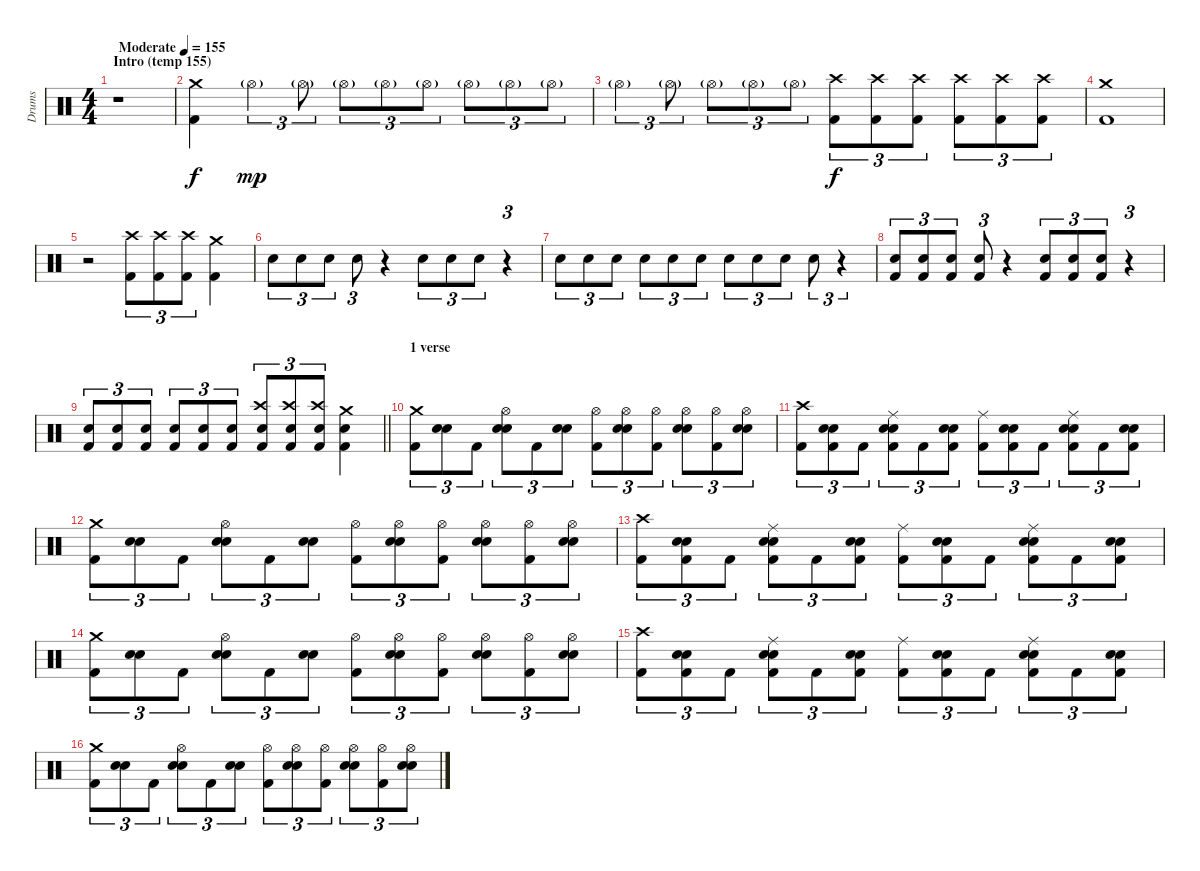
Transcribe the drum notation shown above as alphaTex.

\track ("Drums" "Drums") {instrument percussion}
\staff {score}
\articulation defaults
\ts (4 4)
\section ("" "Intro (temp 155)")
\tempo (155 "Moderate")
\clef neutral
\ks c
r.1{dy f} |
("Crash medium (hit)" "Kick (hit) 2").4 "Hi-Hat (open)"{g}.4{tu (3 2) dy mp} "Hi-Hat (open)"{g}.8{tu (3 2)} "Hi-Hat (open)"{g}.8{tu (3 2)} "Hi-Hat (open)"{g}.8{tu (3 2)} "Hi-Hat (open)"{g}.8{tu (3 2)} "Hi-Hat (open)"{g}.8{tu (3 2)} "Hi-Hat (open)"{g}.8{tu (3 2)} "Hi-Hat (open)"{g}.8{tu (3 2)} |
"Hi-Hat (open)"{g}.4{tu (3 2)} "Hi-Hat (open)"{g}.8{tu (3 2)} "Hi-Hat (open)"{g}.8{tu (3 2)} "Hi-Hat (open)"{g}.8{tu (3 2)} "Hi-Hat (open)"{g}.8{tu (3 2)} ("Crash high (hit)" "Kick (hit) 2").8{tu (3 2) dy f} ("Crash high (hit)" "Kick (hit) 2").8{tu (3 2)} ("Crash high (hit)" "Kick (hit) 2").8{tu (3 2)} ("Crash high (hit)" "Kick (hit) 2").8{tu (3 2)} ("Crash high (hit)" "Kick (hit) 2").8{tu (3 2)} ("Crash high (hit)" "Kick (hit) 2").8{tu (3 2)} |
("Crash medium (hit)" "Kick (hit) 2").1 |
r.2 ("Crash high (hit)" "Kick (hit) 2").8{tu (3 2)} ("Crash high (hit)" "Kick (hit) 2").8{tu (3 2)} ("Crash high (hit)" "Kick (hit) 2").8{tu (3 2)} ("Crash medium (hit)" "Kick (hit) 2").4 |
"Electric Snare (hit)".8{tu (3 2)} "Electric Snare (hit)".8{tu (3 2)} "Electric Snare (hit)".8{tu (3 2)} "Electric Snare (hit)".8{tu (3 2)} r.4 "Electric Snare (hit)".8{tu (3 2)} "Electric Snare (hit)".8{tu (3 2)} "Electric Snare (hit)".8{tu (3 2)} r.4{tu (3 2)} |
"Electric Snare (hit)".8{tu (3 2)} "Electric Snare (hit)".8{tu (3 2)} "Electric Snare (hit)".8{tu (3 2)} "Electric Snare (hit)".8{tu (3 2)} "Electric Snare (hit)".8{tu (3 2)} "Electric Snare (hit)".8{tu (3 2)} "Electric Snare (hit)".8{tu (3 2)} "Electric Snare (hit)".8{tu (3 2)} "Electric Snare (hit)".8{tu (3 2)} "Electric Snare (hit)".8{tu (3 2)} r.4{tu (3 2)} |
("Electric Snare (hit)" "Kick (hit) 2").8{tu (3 2)} ("Electric Snare (hit)" "Kick (hit) 2").8{tu (3 2)} ("Electric Snare (hit)" "Kick (hit) 2").8{tu (3 2)} ("Electric Snare (hit)" "Kick (hit) 2").8{tu (3 2)} r.4 ("Electric Snare (hit)" "Kick (hit) 2").8{tu (3 2)} ("Electric Snare (hit)" "Kick (hit) 2").8{tu (3 2)} ("Electric Snare (hit)" "Kick (hit) 2").8{tu (3 2)} r.4{tu (3 2)} |
\barLineRight lightlight
("Electric Snare (hit)" "Kick (hit) 2").8{tu (3 2)} ("Electric Snare (hit)" "Kick (hit) 2").8{tu (3 2)} ("Electric Snare (hit)" "Kick (hit) 2").8{tu (3 2)} ("Electric Snare (hit)" "Kick (hit) 2").8{tu (3 2)} ("Electric Snare (hit)" "Kick (hit) 2").8{tu (3 2)} ("Electric Snare (hit)" "Kick (hit) 2").8{tu (3 2)} ("Crash high (hit)" "Electric Snare (hit)" "Kick (hit) 2").8{tu (3 2)} ("Crash high (hit)" "Electric Snare (hit)" "Kick (hit) 2").8{tu (3 2)} ("Crash high (hit)" "Electric Snare (hit)" "Kick (hit) 2").8{tu (3 2)} ("Crash medium (hit)" "Electric Snare (hit)" "Kick (hit) 2").4 |
\section ("" "1 verse")
("Crash medium (hit)" "Kick (hit) 2").8{tu (3 2)} ("Electric Snare (hit)" "Electric Snare (hit)").8{tu (3 2)} "Kick (hit) 2".8{tu (3 2)} ("Hi-Hat (open)" "Electric Snare (hit)" "Electric Snare (hit)").8{tu (3 2)} "Kick (hit) 2".8{tu (3 2)} ("Electric Snare (hit)" "Electric Snare (hit)").8{tu (3 2)} ("Hi-Hat (open)" "Kick (hit) 2").8{tu (3 2)} ("Hi-Hat (open)" "Electric Snare (hit)" "Electric Snare (hit)").8{tu (3 2)} ("Hi-Hat (open)" "Kick (hit) 2").8{tu (3 2)} ("Hi-Hat (open)" "Electric Snare (hit)" "Electric Snare (hit)").8{tu (3 2)} ("Hi-Hat (open)" "Kick (hit) 2").8{tu (3 2)} ("Hi-Hat (open)" "Electric Snare (hit)" "Electric Snare (hit)").8{tu (3 2)} |
("Crash high (hit)" "Kick (hit) 2").8{tu (3 2)} ("Electric Snare (hit)" "Electric Snare (hit)" "Kick (hit) 2").8{tu (3 2)} "Kick (hit) 2".8{tu (3 2)} ("Ride (middle)" "Electric Snare (hit)" "Electric Snare (hit)" "Kick (hit) 2").8{tu (3 2)} "Kick (hit) 2".8{tu (3 2)} ("Electric Snare (hit)" "Electric Snare (hit)" "Kick (hit) 2").8{tu (3 2)} ("Ride (middle)" "Kick (hit) 2").8{tu (3 2)} ("Electric Snare (hit)" "Electric Snare (hit)" "Kick (hit) 2").8{tu (3 2)} "Kick (hit) 2".8{tu (3 2)} ("Ride (middle)" "Electric Snare (hit)" "Electric Snare (hit)" "Kick (hit) 2").8{tu (3 2)} "Kick (hit) 2".8{tu (3 2)} ("Electric Snare (hit)" "Electric Snare (hit)" "Kick (hit) 2").8{tu (3 2)} |
("Crash medium (hit)" "Kick (hit) 2").8{tu (3 2)} ("Electric Snare (hit)" "Electric Snare (hit)").8{tu (3 2)} "Kick (hit) 2".8{tu (3 2)} ("Hi-Hat (open)" "Electric Snare (hit)" "Electric Snare (hit)").8{tu (3 2)} "Kick (hit) 2".8{tu (3 2)} ("Electric Snare (hit)" "Electric Snare (hit)").8{tu (3 2)} ("Hi-Hat (open)" "Kick (hit) 2").8{tu (3 2)} ("Hi-Hat (open)" "Electric Snare (hit)" "Electric Snare (hit)").8{tu (3 2)} ("Hi-Hat (open)" "Kick (hit) 2").8{tu (3 2)} ("Hi-Hat (open)" "Electric Snare (hit)" "Electric Snare (hit)").8{tu (3 2)} ("Hi-Hat (open)" "Kick (hit) 2").8{tu (3 2)} ("Hi-Hat (open)" "Electric Snare (hit)" "Electric Snare (hit)").8{tu (3 2)} |
("Crash high (hit)" "Kick (hit) 2").8{tu (3 2)} ("Electric Snare (hit)" "Electric Snare (hit)" "Kick (hit) 2").8{tu (3 2)} "Kick (hit) 2".8{tu (3 2)} ("Ride (middle)" "Electric Snare (hit)" "Electric Snare (hit)" "Kick (hit) 2").8{tu (3 2)} "Kick (hit) 2".8{tu (3 2)} ("Electric Snare (hit)" "Electric Snare (hit)" "Kick (hit) 2").8{tu (3 2)} ("Ride (middle)" "Kick (hit) 2").8{tu (3 2)} ("Electric Snare (hit)" "Electric Snare (hit)" "Kick (hit) 2").8{tu (3 2)} "Kick (hit) 2".8{tu (3 2)} ("Ride (middle)" "Electric Snare (hit)" "Electric Snare (hit)" "Kick (hit) 2").8{tu (3 2)} "Kick (hit) 2".8{tu (3 2)} ("Electric Snare (hit)" "Electric Snare (hit)" "Kick (hit) 2").8{tu (3 2)} |
("Crash medium (hit)" "Kick (hit) 2").8{tu (3 2)} ("Electric Snare (hit)" "Electric Snare (hit)").8{tu (3 2)} "Kick (hit) 2".8{tu (3 2)} ("Hi-Hat (open)" "Electric Snare (hit)" "Electric Snare (hit)").8{tu (3 2)} "Kick (hit) 2".8{tu (3 2)} ("Electric Snare (hit)" "Electric Snare (hit)").8{tu (3 2)} ("Hi-Hat (open)" "Kick (hit) 2").8{tu (3 2)} ("Hi-Hat (open)" "Electric Snare (hit)" "Electric Snare (hit)").8{tu (3 2)} ("Hi-Hat (open)" "Kick (hit) 2").8{tu (3 2)} ("Hi-Hat (open)" "Electric Snare (hit)" "Electric Snare (hit)").8{tu (3 2)} ("Hi-Hat (open)" "Kick (hit) 2").8{tu (3 2)} ("Hi-Hat (open)" "Electric Snare (hit)" "Electric Snare (hit)").8{tu (3 2)} |
("Crash high (hit)" "Kick (hit) 2").8{tu (3 2)} ("Electric Snare (hit)" "Electric Snare (hit)" "Kick (hit) 2").8{tu (3 2)} "Kick (hit) 2".8{tu (3 2)} ("Ride (middle)" "Electric Snare (hit)" "Electric Snare (hit)" "Kick (hit) 2").8{tu (3 2)} "Kick (hit) 2".8{tu (3 2)} ("Electric Snare (hit)" "Electric Snare (hit)" "Kick (hit) 2").8{tu (3 2)} ("Ride (middle)" "Kick (hit) 2").8{tu (3 2)} ("Electric Snare (hit)" "Electric Snare (hit)" "Kick (hit) 2").8{tu (3 2)} "Kick (hit) 2".8{tu (3 2)} ("Ride (middle)" "Electric Snare (hit)" "Electric Snare (hit)" "Kick (hit) 2").8{tu (3 2)} "Kick (hit) 2".8{tu (3 2)} ("Electric Snare (hit)" "Electric Snare (hit)" "Kick (hit) 2").8{tu (3 2)} |
("Crash medium (hit)" "Kick (hit) 2").8{tu (3 2)} ("Electric Snare (hit)" "Electric Snare (hit)").8{tu (3 2)} "Kick (hit) 2".8{tu (3 2)} ("Hi-Hat (open)" "Electric Snare (hit)" "Electric Snare (hit)").8{tu (3 2)} "Kick (hit) 2".8{tu (3 2)} ("Electric Snare (hit)" "Electric Snare (hit)").8{tu (3 2)} ("Hi-Hat (open)" "Kick (hit) 2").8{tu (3 2)} ("Hi-Hat (open)" "Electric Snare (hit)" "Electric Snare (hit)").8{tu (3 2)} ("Hi-Hat (open)" "Kick (hit) 2").8{tu (3 2)} ("Hi-Hat (open)" "Electric Snare (hit)" "Electric Snare (hit)").8{tu (3 2)} ("Hi-Hat (open)" "Kick (hit) 2").8{tu (3 2)} ("Hi-Hat (open)" "Electric Snare (hit)" "Electric Snare (hit)").8{tu (3 2)}
